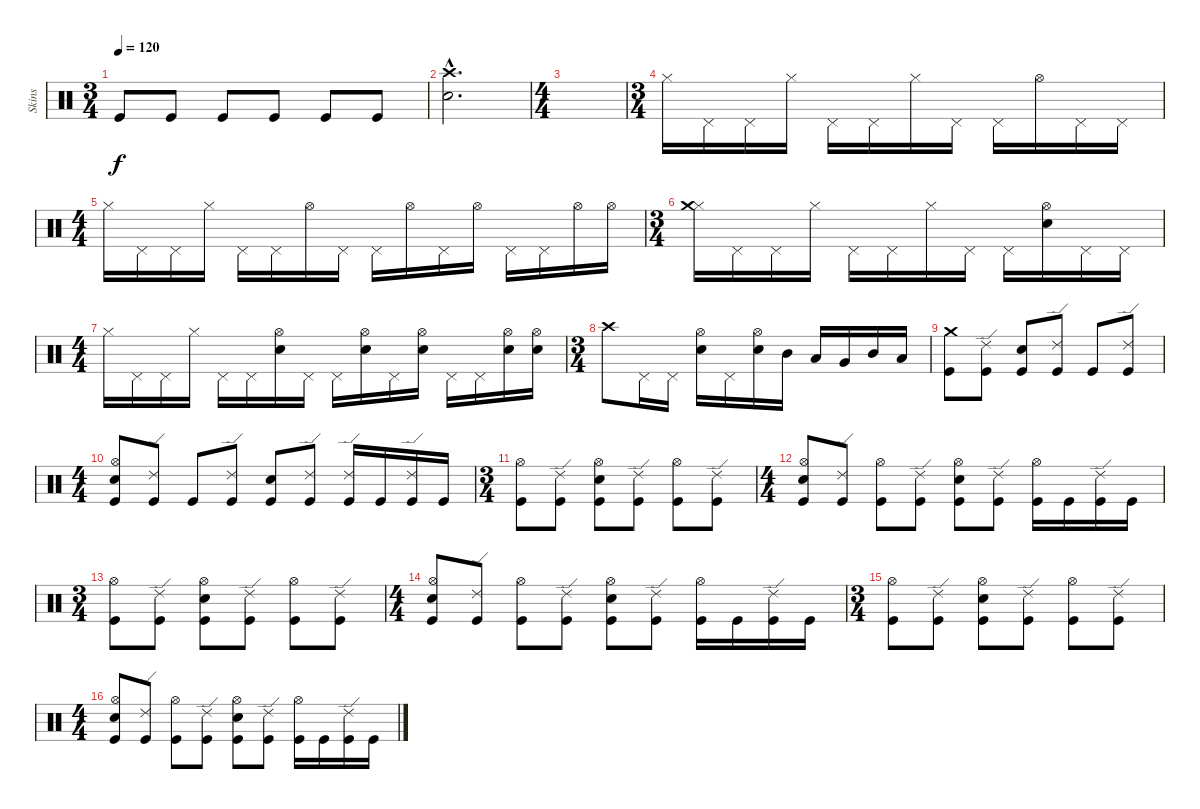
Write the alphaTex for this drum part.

\track ("Skins" "Skins") {instrument percussion}
\staff {score}
\articulation defaults
\ts (3 4)
\tempo 120
\clef neutral
\ks c "Kick (hit)".8{dy f} "Kick (hit)".8 "Kick (hit)".8 "Kick (hit)".8 "Kick (hit)".8 "Kick (hit)".8
|
("Crash high (hit)"{hac} "Snare (hit) 2"{hac}).2{d} |
\ts (4 4)
|
\ts (3 4)
"Hi-Hat (closed)".16 "Pedal Hi-Hat (hit)".16 "Pedal Hi-Hat (hit)".16 "Hi-Hat (closed)".16 "Pedal Hi-Hat (hit)".16 "Pedal Hi-Hat (hit)".16 "Hi-Hat (closed)".16 "Pedal Hi-Hat (hit)".16 "Pedal Hi-Hat (hit)".16 "Hi-Hat (open)".16 "Pedal Hi-Hat (hit)".16 "Pedal Hi-Hat (hit)".16 |
\ts (4 4)
"Hi-Hat (closed)".16 "Pedal Hi-Hat (hit)".16 "Pedal Hi-Hat (hit)".16 "Hi-Hat (closed)".16 "Pedal Hi-Hat (hit)".16 "Pedal Hi-Hat (hit)".16 "Hi-Hat (open)".16 "Pedal Hi-Hat (hit)".16 "Pedal Hi-Hat (hit)".16 "Hi-Hat (open)".16 "Pedal Hi-Hat (hit)".16 "Hi-Hat (open)".16 "Pedal Hi-Hat (hit)".16 "Pedal Hi-Hat (hit)".16 "Hi-Hat (open)".16 "Hi-Hat (open)".16 |
\ts (3 4)
("Hi-Hat (closed)" "Crash medium (hit)").16 "Pedal Hi-Hat (hit)".16 "Pedal Hi-Hat (hit)".16 "Hi-Hat (closed)".16 "Pedal Hi-Hat (hit)".16 "Pedal Hi-Hat (hit)".16 "Hi-Hat (closed)".16 "Pedal Hi-Hat (hit)".16 "Pedal Hi-Hat (hit)".16 ("Hi-Hat (open)" "Snare (hit) 2").16 "Pedal Hi-Hat (hit)".16 "Pedal Hi-Hat (hit)".16 |
\ts (4 4)
"Hi-Hat (closed)".16 "Pedal Hi-Hat (hit)".16 "Pedal Hi-Hat (hit)".16 "Hi-Hat (closed)".16 "Pedal Hi-Hat (hit)".16 "Pedal Hi-Hat (hit)".16 ("Hi-Hat (open)" "Snare (hit) 2").16 "Pedal Hi-Hat (hit)".16 "Pedal Hi-Hat (hit)".16 ("Hi-Hat (open)" "Snare (hit) 2").16 "Pedal Hi-Hat (hit)".16 ("Hi-Hat (open)" "Snare (hit) 2").16 "Pedal Hi-Hat (hit)".16 "Pedal Hi-Hat (hit)".16 ("Hi-Hat (open)" "Snare (hit) 2").16 ("Hi-Hat (open)" "Snare (hit) 2").16 |
\ts (3 4)
"Crash high (hit)".8 "Pedal Hi-Hat (hit)".16 "Pedal Hi-Hat (hit)".16 ("Hi-Hat (open)" "Snare (hit) 2").16 "Pedal Hi-Hat (hit)".16 ("Hi-Hat (open)" "Snare (hit) 2").16 "Mid Tom (hit)".16 "Low Tom (hit)".16 "Very Low Tom (hit)".16 "Mid Tom (hit)".16 "Low Tom (hit)".16 |
("Crash medium (hit)" "Kick (hit)").8 ("Ride (edge) 2" "Kick (hit)").8 ("Snare (hit) 2" "Kick (hit)").8 ("Ride (edge) 2" "Kick (hit)").8 "Kick (hit)".8 ("Ride (edge) 2" "Kick (hit)").8 |
\ts (4 4)
("Hi-Hat (open)" "Electric Snare (hit)" "Kick (hit)").8 ("Ride (edge) 2" "Kick (hit)").8 "Kick (hit)".8 ("Ride (edge) 2" "Kick (hit)").8 ("Snare (hit) 2" "Kick (hit)").8 ("Ride (edge) 2" "Kick (hit)").8 ("Ride (edge) 2" "Kick (hit)").16 "Kick (hit)".16 ("Ride (edge) 2" "Kick (hit)").16 "Kick (hit)".16 |
\ts (3 4)
("Hi-Hat (open)" "Kick (hit)").8 ("Ride (edge) 2" "Kick (hit)").8 ("Hi-Hat (open)" "Snare (hit) 2" "Kick (hit)").8 ("Ride (edge) 2" "Kick (hit)").8 ("Hi-Hat (open)" "Kick (hit)").8 ("Ride (edge) 2" "Kick (hit)").8 |
\ts (4 4)
("Hi-Hat (open)" "Electric Snare (hit)" "Kick (hit)").8 ("Ride (edge) 2" "Kick (hit)").8 ("Hi-Hat (open)" "Kick (hit)").8 ("Ride (edge) 2" "Kick (hit)").8 ("Hi-Hat (open)" "Snare (hit) 2" "Kick (hit)").8 ("Ride (edge) 2" "Kick (hit)").8 ("Hi-Hat (open)" "Kick (hit)").16 "Kick (hit)".16 ("Ride (edge) 2" "Kick (hit)").16 "Kick (hit)".16 |
\ts (3 4)
("Hi-Hat (open)" "Kick (hit)").8 ("Ride (edge) 2" "Kick (hit)").8 ("Hi-Hat (open)" "Snare (hit) 2" "Kick (hit)").8 ("Ride (edge) 2" "Kick (hit)").8 ("Hi-Hat (open)" "Kick (hit)").8 ("Ride (edge) 2" "Kick (hit)").8 |
\ts (4 4)
("Hi-Hat (open)" "Electric Snare (hit)" "Kick (hit)").8 ("Ride (edge) 2" "Kick (hit)").8 ("Hi-Hat (open)" "Kick (hit)").8 ("Ride (edge) 2" "Kick (hit)").8 ("Hi-Hat (open)" "Snare (hit) 2" "Kick (hit)").8 ("Ride (edge) 2" "Kick (hit)").8 ("Hi-Hat (open)" "Kick (hit)").16 "Kick (hit)".16 ("Ride (edge) 2" "Kick (hit)").16 "Kick (hit)".16 |
\ts (3 4)
("Hi-Hat (open)" "Kick (hit)").8 ("Ride (edge) 2" "Kick (hit)").8 ("Hi-Hat (open)" "Snare (hit) 2" "Kick (hit)").8 ("Ride (edge) 2" "Kick (hit)").8 ("Hi-Hat (open)" "Kick (hit)").8 ("Ride (edge) 2" "Kick (hit)").8 |
\ts (4 4)
("Hi-Hat (open)" "Electric Snare (hit)" "Kick (hit)").8 ("Ride (edge) 2" "Kick (hit)").8 ("Hi-Hat (open)" "Kick (hit)").8 ("Ride (edge) 2" "Kick (hit)").8 ("Hi-Hat (open)" "Snare (hit) 2" "Kick (hit)").8 ("Ride (edge) 2" "Kick (hit)").8 ("Hi-Hat (open)" "Kick (hit)").16 "Kick (hit)".16 ("Ride (edge) 2" "Kick (hit)").16 "Kick (hit)".16
